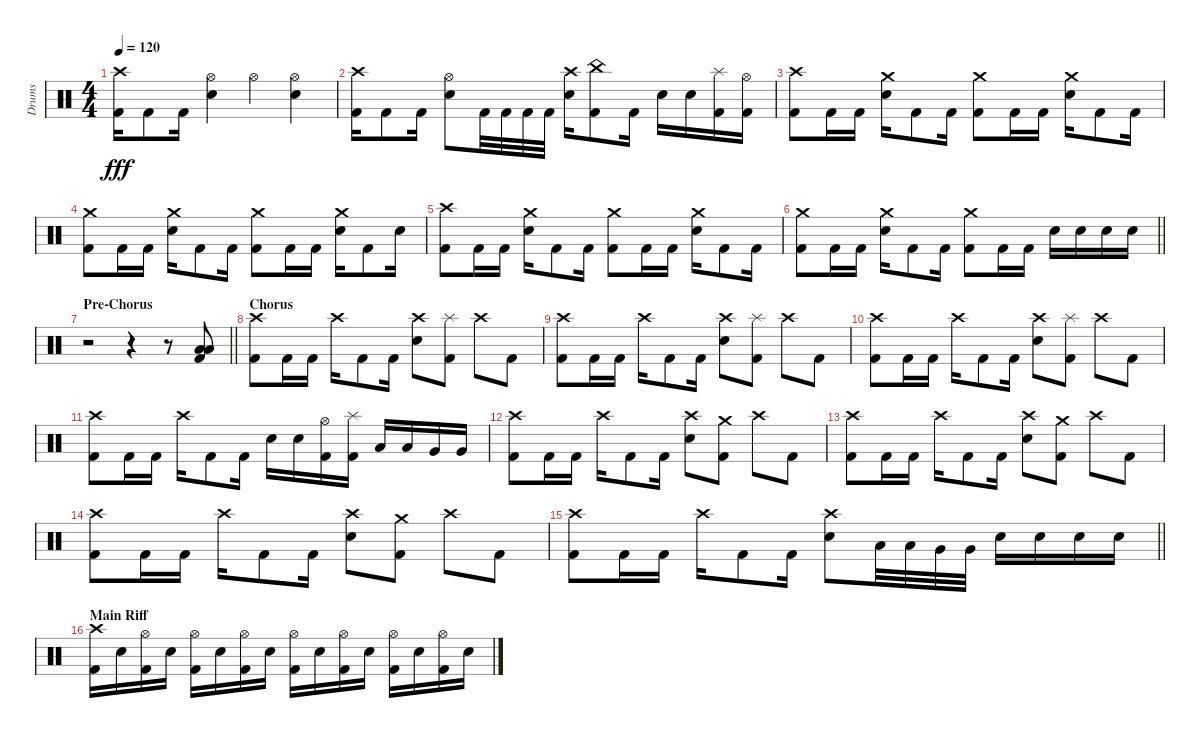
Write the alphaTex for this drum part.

\track ("Drums" "Drums") {instrument percussion}
\staff {score}
\articulation defaults
\ts (4 4)
\tempo 120
\clef neutral
\ks c
("Crash high (hit)" "Kick (hit) 2").16{dy fff} "Kick (hit) 2".8 "Kick (hit) 2".16 ("Hi-Hat (open)" "Electric Snare (hit)").4 "Hi-Hat (open)".4 ("Hi-Hat (open)" "Electric Snare (hit)").4 |
("Crash high (hit)" "Kick (hit) 2").16 "Kick (hit) 2".8 "Kick (hit) 2".16 ("Hi-Hat (open)" "Electric Snare (hit)").8 "Kick (hit) 2".32 "Kick (hit) 2".32 "Kick (hit) 2".32 "Kick (hit) 2".32 ("Crash high (hit)" "Electric Snare (hit)").16 ("China (hit)" "Kick (hit) 2").8 "Kick (hit) 2".16 "Electric Snare (hit)".16 "Electric Snare (hit)".16 ("Splash (hit)" "Kick (hit) 2").16 ("Hi-Hat (open)" "Kick (hit) 2").16 |
("Crash high (hit)" "Kick (hit) 2").8 "Kick (hit) 2".16 "Kick (hit) 2".16 ("Crash medium (hit)" "Electric Snare (hit)").16 "Kick (hit) 2".8 "Kick (hit) 2".16 ("Crash medium (hit)" "Kick (hit) 2").8 "Kick (hit) 2".16 "Kick (hit) 2".16 ("Crash medium (hit)" "Electric Snare (hit)").16 "Kick (hit) 2".8 "Kick (hit) 2".16 |
("Crash medium (hit)" "Kick (hit) 2").8 "Kick (hit) 2".16 "Kick (hit) 2".16 ("Crash medium (hit)" "Electric Snare (hit)").16 "Kick (hit) 2".8 "Kick (hit) 2".16 ("Crash medium (hit)" "Kick (hit) 2").8 "Kick (hit) 2".16 "Kick (hit) 2".16 ("Crash medium (hit)" "Electric Snare (hit)").16 "Kick (hit) 2".8 "Electric Snare (hit)".16 |
("Crash high (hit)" "Kick (hit) 2").8 "Kick (hit) 2".16 "Kick (hit) 2".16 ("Crash medium (hit)" "Electric Snare (hit)").16 "Kick (hit) 2".8 "Kick (hit) 2".16 ("Crash medium (hit)" "Kick (hit) 2").8 "Kick (hit) 2".16 "Kick (hit) 2".16 ("Crash medium (hit)" "Electric Snare (hit)").16 "Kick (hit) 2".8 "Kick (hit) 2".16 |
\barLineRight lightlight
("Crash medium (hit)" "Kick (hit) 2").8 "Kick (hit) 2".16 "Kick (hit) 2".16 ("Crash medium (hit)" "Electric Snare (hit)").16 "Kick (hit) 2".8 "Kick (hit) 2".16 ("Crash medium (hit)" "Kick (hit) 2").8 "Kick (hit) 2".16 "Kick (hit) 2".16 "Electric Snare (hit)".16 "Electric Snare (hit)".16 "Electric Snare (hit)".16 "Electric Snare (hit)".16 |
\section ("" "Pre-Chorus")
\barLineRight lightlight
r.2 r.4 r.8 ("Low Floor Tom (hit)" "Low Tom (hit)" "Kick (hit) 2").8 |
\section ("" "Chorus")
("Crash high (hit)" "Kick (hit) 2").8 "Kick (hit) 2".16 "Kick (hit) 2".16 "Crash high (hit)".16 "Kick (hit) 2".8 "Kick (hit) 2".16 ("Crash high (hit)" "Electric Snare (hit)").8 ("Splash (hit)" "Kick (hit) 2").8 "Crash high (hit)".8 "Kick (hit) 2".8 |
("Crash high (hit)" "Kick (hit) 2").8 "Kick (hit) 2".16 "Kick (hit) 2".16 "Crash high (hit)".16 "Kick (hit) 2".8 "Kick (hit) 2".16 ("Crash high (hit)" "Electric Snare (hit)").8 ("Splash (hit)" "Kick (hit) 2").8 "Crash high (hit)".8 "Kick (hit) 2".8 |
("Crash high (hit)" "Kick (hit) 2").8 "Kick (hit) 2".16 "Kick (hit) 2".16 "Crash high (hit)".16 "Kick (hit) 2".8 "Kick (hit) 2".16 ("Crash high (hit)" "Electric Snare (hit)").8 ("Splash (hit)" "Kick (hit) 2").8 "Crash high (hit)".8 "Kick (hit) 2".8 |
("Crash high (hit)" "Kick (hit) 2").8 "Kick (hit) 2".16 "Kick (hit) 2".16 "Crash high (hit)".16 "Kick (hit) 2".8 "Kick (hit) 2".16 "Electric Snare (hit)".16 "Electric Snare (hit)".16 ("Hi-Hat (open)" "Kick (hit) 2").16 ("Splash (hit)" "Kick (hit) 2").16 "Low Tom (hit)".16 "Low Tom (hit)".16 "Very Low Tom (hit)".16 "Very Low Tom (hit)".16 |
("Crash high (hit)" "Kick (hit) 2").8 "Kick (hit) 2".16 "Kick (hit) 2".16 "Crash high (hit)".16 "Kick (hit) 2".8 "Kick (hit) 2".16 ("Crash high (hit)" "Electric Snare (hit)").8 ("Crash medium (hit)" "Kick (hit) 2").8 "Crash high (hit)".8 "Kick (hit) 2".8 |
("Crash high (hit)" "Kick (hit) 2").8 "Kick (hit) 2".16 "Kick (hit) 2".16 "Crash high (hit)".16 "Kick (hit) 2".8 "Kick (hit) 2".16 ("Crash high (hit)" "Electric Snare (hit)").8 ("Crash medium (hit)" "Kick (hit) 2").8 "Crash high (hit)".8 "Kick (hit) 2".8 |
("Crash high (hit)" "Kick (hit) 2").8 "Kick (hit) 2".16 "Kick (hit) 2".16 "Crash high (hit)".16 "Kick (hit) 2".8 "Kick (hit) 2".16 ("Crash high (hit)" "Electric Snare (hit)").8 ("Crash medium (hit)" "Kick (hit) 2").8 "Crash high (hit)".8 "Kick (hit) 2".8 |
\barLineRight lightlight
("Crash high (hit)" "Kick (hit) 2").8 "Kick (hit) 2".16 "Kick (hit) 2".16 "Crash high (hit)".16 "Kick (hit) 2".8 "Kick (hit) 2".16 ("Crash high (hit)" "Electric Snare (hit)").8 "Low Tom (hit)".32 "Low Tom (hit)".32 "Very Low Tom (hit)".32 "Very Low Tom (hit)".32 "Electric Snare (hit)".16 "Electric Snare (hit)".16 "Electric Snare (hit)".16 "Electric Snare (hit)".16 |
\section ("" "Main Riff")
("Crash high (hit)" "Kick (hit) 2").16 "Electric Snare (hit)".16 ("Hi-Hat (open)" "Kick (hit) 2").16 "Electric Snare (hit)".16 ("Hi-Hat (open)" "Kick (hit) 2").16 "Electric Snare (hit)".16 ("Hi-Hat (open)" "Kick (hit) 2").16 "Electric Snare (hit)".16 ("Hi-Hat (open)" "Kick (hit) 2").16 "Electric Snare (hit)".16 ("Hi-Hat (open)" "Kick (hit) 2").16 "Electric Snare (hit)".16 ("Hi-Hat (open)" "Kick (hit) 2").16 "Electric Snare (hit)".16 ("Hi-Hat (open)" "Kick (hit) 2").16 "Electric Snare (hit)".16
